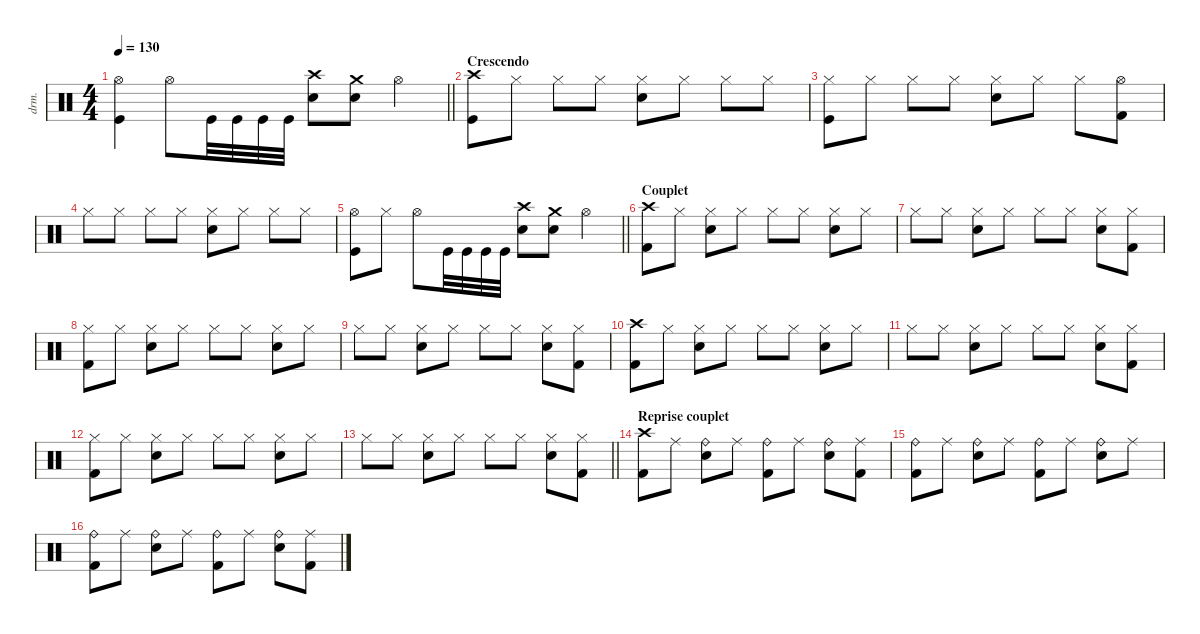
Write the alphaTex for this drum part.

\defaultSystemsLayout 4
\hideDynamics
\bracketExtendMode nobrackets
\otherSystemsTrackNameOrientation horizontal
\track ("Manouche" "drm.") {instrument percussion}
\staff {score}
\articulation defaults
\ts (4 4)
\tempo 130
\clef neutral
\barLineRight lightlight
\ks c
("Hi-Hat (open)" "Kick (hit)").4{dy f} "Hi-Hat (open)".8 "Kick (hit)".32 "Kick (hit)".32 "Kick (hit)".32 "Kick (hit)".32 ("Snare (hit) 2" "Crash high (hit)").8 ("Crash medium (hit)" "Snare (hit) 2").8 "Hi-Hat (open)".4 |
\section ("" "Crescendo")
("Crash high (hit)" "Kick (hit)").8{dy mp} "Hi-Hat (closed)".8 "Hi-Hat (closed)".8 "Hi-Hat (closed)".8 ("Hi-Hat (closed)" "Snare (hit) 2").8 "Hi-Hat (closed)".8 "Hi-Hat (closed)".8 "Hi-Hat (closed)".8 |
("Hi-Hat (closed)" "Kick (hit)").8 "Hi-Hat (closed)".8 "Hi-Hat (closed)".8 "Hi-Hat (closed)".8 ("Hi-Hat (closed)" "Snare (hit) 2").8 "Hi-Hat (closed)".8 "Hi-Hat (closed)".8 ("Hi-Hat (open)" "Kick (hit) 2").8 |
"Hi-Hat (closed)".8{dy mf} "Hi-Hat (closed)".8{dy mp} "Hi-Hat (closed)".8 "Hi-Hat (closed)".8 ("Hi-Hat (closed)" "Snare (hit) 2").8 "Hi-Hat (closed)".8 "Hi-Hat (closed)".8 "Hi-Hat (closed)".8 |
\barLineRight lightlight
("Kick (hit)" "Hi-Hat (open)").8{dy f} "Hi-Hat (closed)".8 "Hi-Hat (open)".8 "Kick (hit)".32 "Kick (hit)".32 "Kick (hit)".32 "Kick (hit)".32 ("Snare (hit) 2" "Crash high (hit)").8 ("Crash medium (hit)" "Snare (hit) 2").8 "Hi-Hat (open)".4 |
\section ("" "Couplet")
("Crash high (hit)" "Kick (hit) 2").8 "Hi-Hat (closed)".8{dy mp} ("Hi-Hat (closed)" "Snare (hit) 2").8{dy f} "Hi-Hat (closed)".8{dy mp} "Hi-Hat (closed)".8{dy f} "Hi-Hat (closed)".8{dy mp} ("Hi-Hat (closed)" "Snare (hit) 2").8{dy f} "Hi-Hat (closed)".8{dy mp} |
"Hi-Hat (closed)".8{dy f} "Hi-Hat (closed)".8{dy mp} ("Hi-Hat (closed)" "Snare (hit) 2").8{dy f} "Hi-Hat (closed)".8{dy mp} "Hi-Hat (closed)".8{dy f} "Hi-Hat (closed)".8{dy mp} ("Hi-Hat (closed)" "Snare (hit) 2").8{dy f} ("Hi-Hat (closed)" "Kick (hit) 2").8{dy mp} |
("Hi-Hat (closed)" "Kick (hit) 2").8 "Hi-Hat (closed)".8 ("Hi-Hat (closed)" "Snare (hit) 2").8{dy f} "Hi-Hat (closed)".8{dy mp} "Hi-Hat (closed)".8{dy f} "Hi-Hat (closed)".8{dy mp} ("Hi-Hat (closed)" "Snare (hit) 2").8{dy f} "Hi-Hat (closed)".8{dy mp} |
"Hi-Hat (closed)".8{dy f} "Hi-Hat (closed)".8{dy mp} ("Hi-Hat (closed)" "Snare (hit) 2").8{dy f} "Hi-Hat (closed)".8{dy mp} "Hi-Hat (closed)".8{dy f} "Hi-Hat (closed)".8{dy mp} ("Hi-Hat (closed)" "Snare (hit) 2").8{dy f} ("Hi-Hat (closed)" "Kick (hit) 2").8{dy mp} |
("Crash high (hit)" "Kick (hit) 2").8{dy f} "Hi-Hat (closed)".8{dy mp} ("Hi-Hat (closed)" "Snare (hit) 2").8{dy f} "Hi-Hat (closed)".8{dy mp} "Hi-Hat (closed)".8{dy f} "Hi-Hat (closed)".8{dy mp} ("Hi-Hat (closed)" "Snare (hit) 2").8{dy f} "Hi-Hat (closed)".8{dy mp} |
"Hi-Hat (closed)".8{dy f} "Hi-Hat (closed)".8{dy mp} ("Hi-Hat (closed)" "Snare (hit) 2").8{dy f} "Hi-Hat (closed)".8{dy mp} "Hi-Hat (closed)".8{dy f} "Hi-Hat (closed)".8{dy mp} ("Hi-Hat (closed)" "Snare (hit) 2").8{dy f} ("Hi-Hat (closed)" "Kick (hit) 2").8{dy mp} |
("Hi-Hat (closed)" "Kick (hit) 2").8 "Hi-Hat (closed)".8 ("Hi-Hat (closed)" "Snare (hit) 2").8{dy f} "Hi-Hat (closed)".8{dy mp} "Hi-Hat (closed)".8{dy f} "Hi-Hat (closed)".8{dy mp} ("Hi-Hat (closed)" "Snare (hit) 2").8{dy f} "Hi-Hat (closed)".8{dy mp} |
\barLineRight lightlight "Hi-Hat (closed)".8{dy f} "Hi-Hat (closed)".8{dy mp}
("Hi-Hat (closed)" "Snare (hit) 2").8{dy f} "Hi-Hat (closed)".8{dy mp} "Hi-Hat (closed)".8{dy f} "Hi-Hat (closed)".8{dy mp} ("Hi-Hat (closed)" "Snare (hit) 2").8{dy f} ("Hi-Hat (closed)" "Kick (hit) 2").8{dy mp} |
\section ("" "Reprise couplet")
("Crash high (hit)" "Kick (hit) 2").8{dy f} "Ride (middle)".8{dy mf} ("Ride (bell)" "Snare (hit) 2").8{dy f} "Ride (middle)".8{dy mf} ("Ride (bell)" "Kick (hit) 2").8{dy f} "Ride (middle)".8{dy mf} ("Ride (bell)" "Snare (hit) 2").8{dy f} ("Ride (middle)" "Kick (hit) 2").8{dy mf} |
("Ride (bell)" "Kick (hit) 2").8{dy f} "Ride (middle)".8{dy mf} ("Ride (bell)" "Snare (hit) 2").8{dy f} "Ride (middle)".8{dy mf} ("Ride (bell)" "Kick (hit) 2").8{dy f} "Ride (middle)".8{dy mf} ("Ride (bell)" "Snare (hit) 2").8{dy f} "Ride (middle)".8{dy mf} |
("Ride (bell)" "Kick (hit) 2").8{dy f} "Ride (middle)".8{dy mf} ("Ride (bell)" "Snare (hit) 2").8{dy f} "Ride (middle)".8{dy mf} ("Ride (bell)" "Kick (hit) 2").8{dy f} "Ride (middle)".8{dy mf} ("Ride (bell)" "Snare (hit) 2").8{dy f} ("Ride (middle)" "Kick (hit) 2").8{dy mf}
